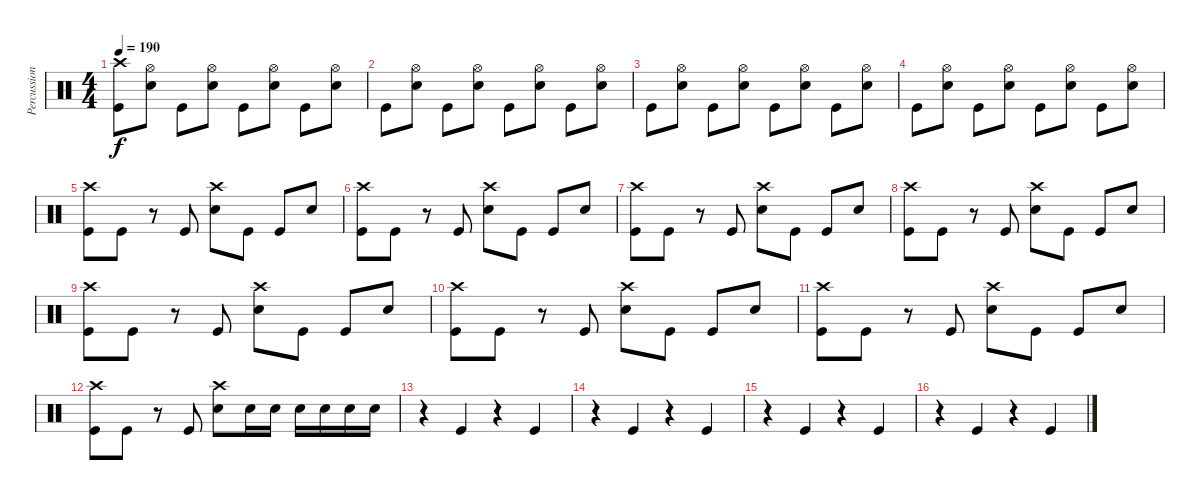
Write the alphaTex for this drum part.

\track ("Percussion" "Percussion") {instrument percussion}
\staff {score}
\articulation defaults
\ts (4 4)
\tempo 190
\clef neutral
\ks c
("Kick (hit)" "Crash high (hit)").8{dy f} ("Electric Snare (hit)" "Hi-Hat (open)").8 "Kick (hit)".8 ("Electric Snare (hit)" "Hi-Hat (open)").8 "Kick (hit)".8 ("Electric Snare (hit)" "Hi-Hat (open)").8 "Kick (hit)".8 ("Electric Snare (hit)" "Hi-Hat (open)").8 |
"Kick (hit)".8 ("Electric Snare (hit)" "Hi-Hat (open)").8 "Kick (hit)".8 ("Electric Snare (hit)" "Hi-Hat (open)").8 "Kick (hit)".8 ("Electric Snare (hit)" "Hi-Hat (open)").8 "Kick (hit)".8 ("Electric Snare (hit)" "Hi-Hat (open)").8 |
"Kick (hit)".8 ("Electric Snare (hit)" "Hi-Hat (open)").8 "Kick (hit)".8 ("Electric Snare (hit)" "Hi-Hat (open)").8 "Kick (hit)".8 ("Electric Snare (hit)" "Hi-Hat (open)").8 "Kick (hit)".8 ("Electric Snare (hit)" "Hi-Hat (open)").8 |
"Kick (hit)".8 ("Electric Snare (hit)" "Hi-Hat (open)").8 "Kick (hit)".8 ("Electric Snare (hit)" "Hi-Hat (open)").8 "Kick (hit)".8 ("Electric Snare (hit)" "Hi-Hat (open)").8 "Kick (hit)".8 ("Electric Snare (hit)" "Hi-Hat (open)").8 |
("Kick (hit)" "Crash high (hit)").8 "Kick (hit)".8 r.8 "Kick (hit)".8 ("Electric Snare (hit)" "Crash high (hit)").8 "Kick (hit)".8 "Kick (hit)".8 "Electric Snare (hit)".8 |
("Kick (hit)" "Crash high (hit)").8 "Kick (hit)".8 r.8 "Kick (hit)".8 ("Electric Snare (hit)" "Crash high (hit)").8 "Kick (hit)".8 "Kick (hit)".8 "Electric Snare (hit)".8 |
("Kick (hit)" "Crash high (hit)").8 "Kick (hit)".8 r.8 "Kick (hit)".8 ("Electric Snare (hit)" "Crash high (hit)").8 "Kick (hit)".8 "Kick (hit)".8 "Electric Snare (hit)".8 |
("Kick (hit)" "Crash high (hit)").8 "Kick (hit)".8 r.8 "Kick (hit)".8 ("Electric Snare (hit)" "Crash high (hit)").8 "Kick (hit)".8 "Kick (hit)".8 "Electric Snare (hit)".8 |
("Kick (hit)" "Crash high (hit)").8 "Kick (hit)".8 r.8 "Kick (hit)".8 ("Electric Snare (hit)" "Crash high (hit)").8 "Kick (hit)".8 "Kick (hit)".8 "Electric Snare (hit)".8 |
("Kick (hit)" "Crash high (hit)").8 "Kick (hit)".8 r.8 "Kick (hit)".8 ("Electric Snare (hit)" "Crash high (hit)").8 "Kick (hit)".8 "Kick (hit)".8 "Electric Snare (hit)".8 |
("Kick (hit)" "Crash high (hit)").8 "Kick (hit)".8 r.8 "Kick (hit)".8 ("Electric Snare (hit)" "Crash high (hit)").8 "Kick (hit)".8 "Kick (hit)".8 "Electric Snare (hit)".8 |
("Kick (hit)" "Crash high (hit)").8 "Kick (hit)".8 r.8 "Kick (hit)".8 ("Electric Snare (hit)" "Crash high (hit)").8 "Electric Snare (hit)".16 "Electric Snare (hit)".16 "Electric Snare (hit)".16 "Electric Snare (hit)".16 "Electric Snare (hit)".16 "Electric Snare (hit)".16 |
r.4 "Kick (hit)".4 r.4 "Kick (hit)".4 |
r.4 "Kick (hit)".4 r.4 "Kick (hit)".4 |
r.4 "Kick (hit)".4 r.4 "Kick (hit)".4 |
r.4 "Kick (hit)".4 r.4 "Kick (hit)".4
